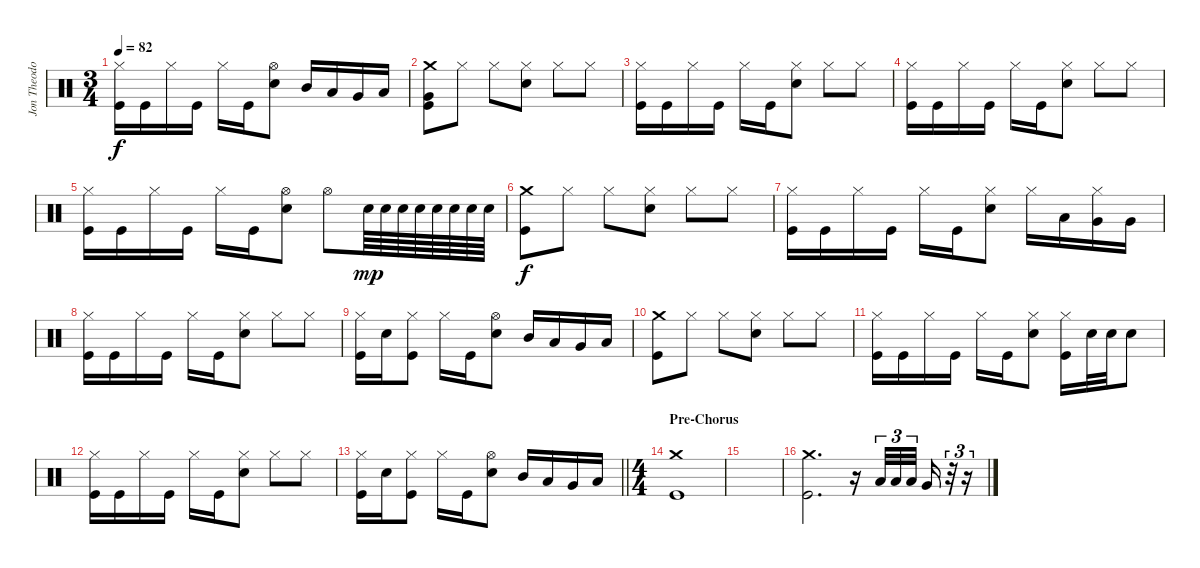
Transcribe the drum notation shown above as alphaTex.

\track ("Jon Theodore - Drums" "Jon Theodo") {instrument percussion}
\staff {score}
\articulation defaults
\ts (3 4)
\tempo 82
\clef neutral
\ks c
("Hi-Hat (closed)" "Kick (hit)").16{dy f} "Kick (hit)".16 "Hi-Hat (closed)".16 "Kick (hit)".16 "Hi-Hat (closed)".16 "Kick (hit)".16 ("Hi-Hat (open)" "Snare (hit) 2").8 "Mid Tom (hit)".16 "Low Tom (hit)".16 "Very Low Tom (hit)".16 "Low Tom (hit)".16 |
("Crash medium (hit)" "Very Low Tom (hit)" "Kick (hit)").8 "Hi-Hat (closed)".8 "Hi-Hat (closed)".8 ("Hi-Hat (closed)" "Snare (hit) 2").8 "Hi-Hat (closed)".8 "Hi-Hat (closed)".8 |
("Hi-Hat (closed)" "Kick (hit)").16 "Kick (hit)".16 "Hi-Hat (closed)".16 "Kick (hit)".16 "Hi-Hat (closed)".16 "Kick (hit)".16 ("Hi-Hat (closed)" "Snare (hit) 2").8 "Hi-Hat (closed)".8 "Hi-Hat (closed)".8 |
("Hi-Hat (closed)" "Kick (hit)").16 "Kick (hit)".16 "Hi-Hat (closed)".16 "Kick (hit)".16 "Hi-Hat (closed)".16 "Kick (hit)".16 ("Hi-Hat (closed)" "Snare (hit) 2").8 "Hi-Hat (closed)".8 "Hi-Hat (closed)".8 |
("Hi-Hat (closed)" "Kick (hit)").16 "Kick (hit)".16 "Hi-Hat (closed)".16 "Kick (hit)".16 "Hi-Hat (closed)".16 "Kick (hit)".16 ("Hi-Hat (open)" "Snare (hit) 2").8 "Hi-Hat (open)".8 "Snare (hit) 2".64{dy mp} "Snare (hit) 2".64 "Snare (hit) 2".64 "Snare (hit) 2".64 "Snare (hit) 2".64 "Snare (hit) 2".64 "Snare (hit) 2".64 "Snare (hit) 2".64 |
("Crash medium (hit)" "Kick (hit)").8{dy f} "Hi-Hat (closed)".8 "Hi-Hat (closed)".8 ("Hi-Hat (closed)" "Snare (hit) 2").8 "Hi-Hat (closed)".8 "Hi-Hat (closed)".8 |
("Hi-Hat (closed)" "Kick (hit)").16 "Kick (hit)".16 "Hi-Hat (closed)".16 "Kick (hit)".16 "Hi-Hat (closed)".16 "Kick (hit)".16 ("Hi-Hat (closed)" "Snare (hit) 2").8 "Hi-Hat (closed)".16 "Low Tom (hit)".16 ("Hi-Hat (closed)" "Very Low Tom (hit)").16 "Very Low Tom (hit)".16 |
("Hi-Hat (closed)" "Kick (hit)").16 "Kick (hit)".16 "Hi-Hat (closed)".16 "Kick (hit)".16 "Hi-Hat (closed)".16 "Kick (hit)".16 ("Hi-Hat (closed)" "Snare (hit) 2").8 "Hi-Hat (closed)".8 "Hi-Hat (closed)".8 |
("Hi-Hat (closed)" "Kick (hit)").16 "Snare (hit) 2".16 ("Hi-Hat (closed)" "Kick (hit)").8 "Hi-Hat (closed)".16 "Kick (hit)".16 ("Hi-Hat (open)" "Snare (hit) 2").8 "Mid Tom (hit)".16 "Low Tom (hit)".16 "Very Low Tom (hit)".16 "Low Tom (hit)".16 |
("Crash medium (hit)" "Kick (hit)").8 "Hi-Hat (closed)".8 "Hi-Hat (closed)".8 ("Hi-Hat (closed)" "Snare (hit) 2").8 "Hi-Hat (closed)".8 "Hi-Hat (closed)".8 |
("Hi-Hat (closed)" "Kick (hit)").16 "Kick (hit)".16 "Hi-Hat (closed)".16 "Kick (hit)".16 "Hi-Hat (closed)".16 "Kick (hit)".16 ("Hi-Hat (closed)" "Snare (hit) 2").8 ("Hi-Hat (closed)" "Kick (hit)").16 "Snare (hit) 2".32 "Snare (hit) 2".32 "Snare (hit) 2".8 |
("Hi-Hat (closed)" "Kick (hit)").16 "Kick (hit)".16 "Hi-Hat (closed)".16 "Kick (hit)".16 "Hi-Hat (closed)".16 "Kick (hit)".16 ("Hi-Hat (closed)" "Snare (hit) 2").8 "Hi-Hat (closed)".8 "Hi-Hat (closed)".8 |
\barLineRight lightlight
("Hi-Hat (closed)" "Kick (hit)").16 "Snare (hit) 2".16 ("Hi-Hat (closed)" "Kick (hit)").8 "Hi-Hat (closed)".16 "Kick (hit)".16 ("Hi-Hat (open)" "Snare (hit) 2").8 "Mid Tom (hit)".16 "Low Tom (hit)".16 "Very Low Tom (hit)".16 "Low Tom (hit)".16 |
\ts (4 4)
\section ("" "Pre-Chorus")
("Crash medium (hit)" "Kick (hit)").1 |
|
("Crash medium (hit)" "Kick (hit)").2{d} r.16 "Low Tom (hit)".32{tu (3 2)} "Low Tom (hit)".32{tu (3 2)} "Low Tom (hit)".32{tu (3 2) beam splitsecondary} "Very Low Tom (hit)".16 r.32{tu (3 2)} r.16{tu (3 2)}
